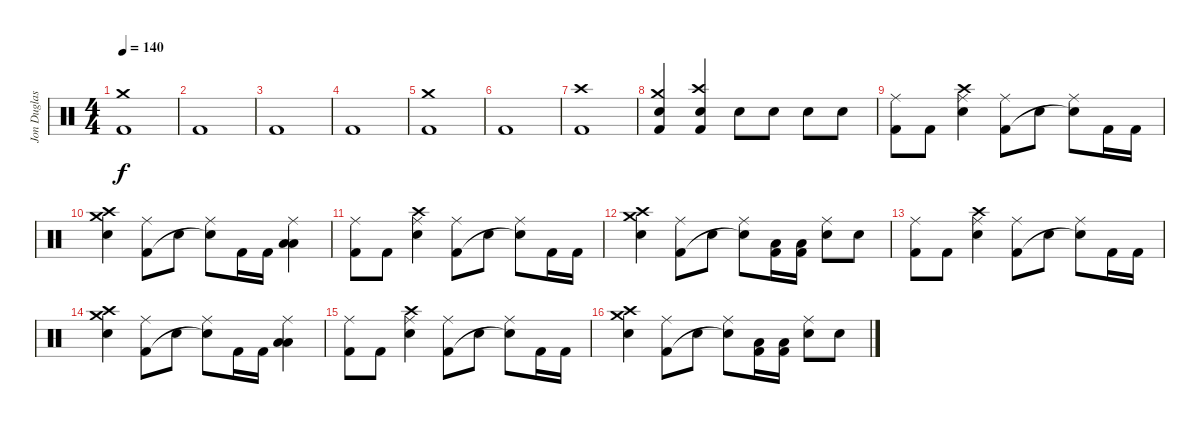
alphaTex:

\track ("Jon Duglas (Drums)" "Jon Duglas") {instrument percussion}
\staff {score}
\articulation defaults
\ts (4 4)
\tempo 140
\clef neutral
\ks c
("Kick (hit) 2" "Crash medium (hit)").1{dy f} |
"Kick (hit) 2".1 |
"Kick (hit) 2".1 |
"Kick (hit) 2".1 |
("Kick (hit) 2" "Crash medium (hit)").1 |
"Kick (hit) 2".1 |
("Kick (hit) 2" "Crash high (hit)").1 |
("Kick (hit) 2" "Crash medium (hit)" "Electric Snare (hit)").4 ("Kick (hit) 2" "Crash high (hit)" "Electric Snare (hit)").4 "Electric Snare (hit)".8 "Electric Snare (hit)".8 "Electric Snare (hit)".8 "Electric Snare (hit)".8 |
("Ride (middle)" "Kick (hit) 2").8 "Kick (hit) 2".8 ("Crash high (hit)" "Ride (middle)" "Electric Snare (hit)").4 ("Ride (middle)" "Kick (hit) 2").8 "Electric Snare (hit)".8 ("Ride (middle)" "Snare (hit)"{t}).8 "Kick (hit) 2".16 "Kick (hit) 2".16 |
("Crash high (hit)" "Electric Snare (hit)" "Crash medium (hit)").4 ("Ride (middle)" "Kick (hit) 2").8 "Electric Snare (hit)".8 ("Ride (middle)" "Snare (hit)"{t}).8 "Kick (hit) 2".16 "Kick (hit) 2".16 ("Ride (middle)" "Low Tom (hit)" "Low Tom (hit)").4 |
("Ride (middle)" "Kick (hit) 2").8 "Kick (hit) 2".8 ("Crash high (hit)" "Ride (middle)" "Electric Snare (hit)").4 ("Ride (middle)" "Kick (hit) 2").8 "Electric Snare (hit)".8 ("Ride (middle)" "Snare (hit)"{t}).8 "Kick (hit) 2".16 "Kick (hit) 2".16 |
("Crash high (hit)" "Electric Snare (hit)" "Crash medium (hit)").4 ("Ride (middle)" "Kick (hit) 2").8 "Electric Snare (hit)".8 ("Ride (middle)" "Snare (hit)"{t}).8 ("Low Floor Tom (hit)" "Kick (hit) 2").16 ("Low Floor Tom (hit)" "Kick (hit) 2").16 ("Ride (middle)" "Electric Snare (hit)").8 "Electric Snare (hit)".8 |
("Ride (middle)" "Kick (hit) 2").8 "Kick (hit) 2".8 ("Crash high (hit)" "Ride (middle)" "Electric Snare (hit)").4 ("Ride (middle)" "Kick (hit) 2").8 "Electric Snare (hit)".8 ("Ride (middle)" "Snare (hit)"{t}).8 "Kick (hit) 2".16 "Kick (hit) 2".16 |
("Crash high (hit)" "Electric Snare (hit)" "Crash medium (hit)").4 ("Ride (middle)" "Kick (hit) 2").8 "Electric Snare (hit)".8 ("Ride (middle)" "Snare (hit)"{t}).8 "Kick (hit) 2".16 "Kick (hit) 2".16 ("Ride (middle)" "Low Tom (hit)" "Low Tom (hit)").4 |
("Ride (middle)" "Kick (hit) 2").8 "Kick (hit) 2".8 ("Crash high (hit)" "Ride (middle)" "Electric Snare (hit)").4 ("Ride (middle)" "Kick (hit) 2").8 "Electric Snare (hit)".8 ("Ride (middle)" "Snare (hit)"{t}).8 "Kick (hit) 2".16 "Kick (hit) 2".16 |
("Crash high (hit)" "Electric Snare (hit)" "Crash medium (hit)").4 ("Ride (middle)" "Kick (hit) 2").8 "Electric Snare (hit)".8 ("Ride (middle)" "Snare (hit)"{t}).8 ("Low Floor Tom (hit)" "Kick (hit) 2").16 ("Low Floor Tom (hit)" "Kick (hit) 2").16 ("Ride (middle)" "Electric Snare (hit)").8 "Electric Snare (hit)".8
